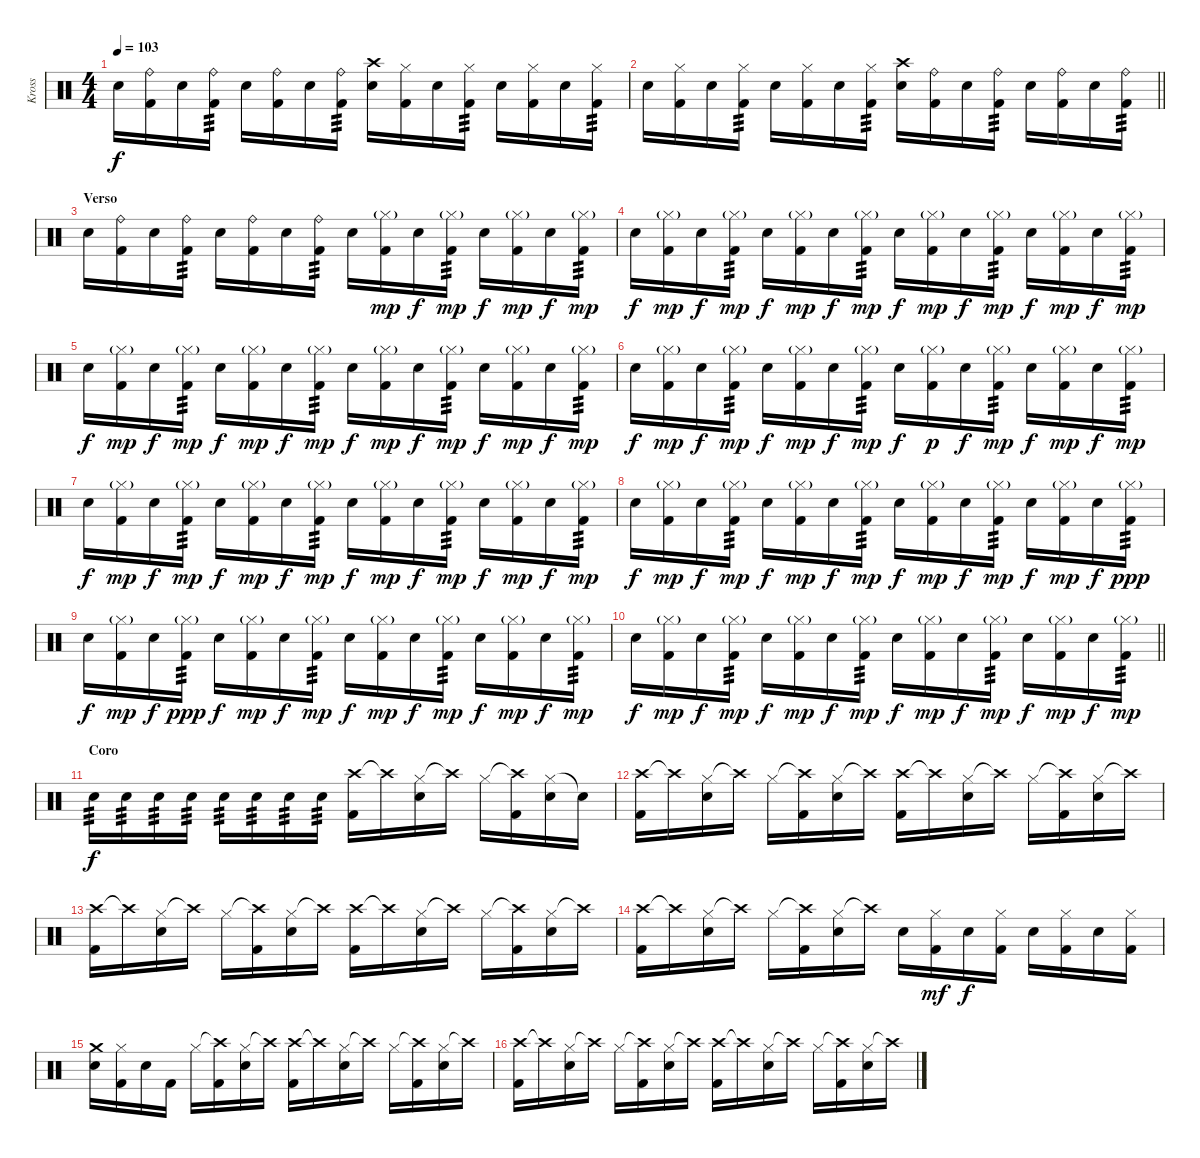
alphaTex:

\track ("Kross" "Kross") {instrument percussion}
\staff {score}
\articulation defaults
\ts (4 4)
\tempo 103
\clef neutral
\ks c "Electric Snare (hit)".16{dy f}
("Ride (bell)" "Kick (hit) 2").16 "Electric Snare (hit)".16 ("Ride (bell)" "Kick (hit) 2").16{tp 3} "Electric Snare (hit)".16 ("Ride (bell)" "Kick (hit) 2").16 "Electric Snare (hit)".16 ("Ride (bell)" "Kick (hit) 2").16{tp 3} ("Crash high (hit)" "Electric Snare (hit)").16 ("Hi-Hat (closed)" "Kick (hit) 2").16 "Electric Snare (hit)".16 ("Hi-Hat (closed)" "Kick (hit) 2").16{tp 3} "Electric Snare (hit)".16 ("Hi-Hat (closed)" "Kick (hit) 2").16 "Electric Snare (hit)".16 ("Hi-Hat (closed)" "Kick (hit) 2").16{tp 3} |
\barLineRight lightlight "Electric Snare (hit)".16
("Hi-Hat (closed)" "Kick (hit) 2").16 "Electric Snare (hit)".16 ("Hi-Hat (closed)" "Kick (hit) 2").16{tp 3} "Electric Snare (hit)".16 ("Hi-Hat (closed)" "Kick (hit) 2").16 "Electric Snare (hit)".16 ("Hi-Hat (closed)" "Kick (hit) 2").16{tp 3} ("Crash high (hit)" "Electric Snare (hit)").16 ("Ride (bell)" "Kick (hit) 2").16 "Electric Snare (hit)".16 ("Ride (bell)" "Kick (hit) 2").16{tp 3} "Electric Snare (hit)".16 ("Ride (bell)" "Kick (hit) 2").16 "Electric Snare (hit)".16 ("Ride (bell)" "Kick (hit) 2").16{tp 3} |
\section ("" "Verso")
"Electric Snare (hit)".16 ("Ride (bell)" "Kick (hit) 2").16 "Electric Snare (hit)".16 ("Ride (bell)" "Kick (hit) 2").16{tp 3} "Electric Snare (hit)".16 ("Ride (bell)" "Kick (hit) 2").16 "Electric Snare (hit)".16 ("Ride (bell)" "Kick (hit) 2").16{tp 3} "Electric Snare (hit)".16 ("Hi-Hat (closed)"{g} "Kick (hit) 2").16{dy mp} "Electric Snare (hit)".16{dy f} ("Hi-Hat (closed)"{g} "Kick (hit) 2").16{tp 3 dy mp} "Electric Snare (hit)".16{dy f} ("Hi-Hat (closed)"{g} "Kick (hit) 2").16{dy mp} "Electric Snare (hit)".16{dy f} ("Hi-Hat (closed)"{g} "Kick (hit) 2").16{tp 3 dy mp} |
"Electric Snare (hit)".16{dy f} ("Hi-Hat (closed)"{g} "Kick (hit) 2").16{dy mp} "Electric Snare (hit)".16{dy f} ("Hi-Hat (closed)"{g} "Kick (hit) 2").16{tp 3 dy mp} "Electric Snare (hit)".16{dy f} ("Hi-Hat (closed)"{g} "Kick (hit) 2").16{dy mp} "Electric Snare (hit)".16{dy f} ("Hi-Hat (closed)"{g} "Kick (hit) 2").16{tp 3 dy mp} "Electric Snare (hit)".16{dy f} ("Hi-Hat (closed)"{g} "Kick (hit) 2").16{dy mp} "Electric Snare (hit)".16{dy f} ("Hi-Hat (closed)"{g} "Kick (hit) 2").16{tp 3 dy mp} "Electric Snare (hit)".16{dy f} ("Hi-Hat (closed)"{g} "Kick (hit) 2").16{dy mp} "Electric Snare (hit)".16{dy f} ("Hi-Hat (closed)"{g} "Kick (hit) 2").16{tp 3 dy mp} |
"Electric Snare (hit)".16{dy f} ("Hi-Hat (closed)"{g} "Kick (hit) 2").16{dy mp} "Electric Snare (hit)".16{dy f} ("Hi-Hat (closed)"{g} "Kick (hit) 2").16{tp 3 dy mp} "Electric Snare (hit)".16{dy f} ("Hi-Hat (closed)"{g} "Kick (hit) 2").16{dy mp} "Electric Snare (hit)".16{dy f} ("Hi-Hat (closed)"{g} "Kick (hit) 2").16{tp 3 dy mp} "Electric Snare (hit)".16{dy f} ("Hi-Hat (closed)"{g} "Kick (hit) 2").16{dy mp} "Electric Snare (hit)".16{dy f} ("Hi-Hat (closed)"{g} "Kick (hit) 2").16{tp 3 dy mp} "Electric Snare (hit)".16{dy f} ("Hi-Hat (closed)"{g} "Kick (hit) 2").16{dy mp} "Electric Snare (hit)".16{dy f} ("Hi-Hat (closed)"{g} "Kick (hit) 2").16{tp 3 dy mp} |
"Electric Snare (hit)".16{dy f} ("Hi-Hat (closed)"{g} "Kick (hit) 2").16{dy mp} "Electric Snare (hit)".16{dy f} ("Hi-Hat (closed)"{g} "Kick (hit) 2").16{tp 3 dy mp} "Electric Snare (hit)".16{dy f} ("Hi-Hat (closed)"{g} "Kick (hit) 2").16{dy mp} "Electric Snare (hit)".16{dy f} ("Hi-Hat (closed)"{g} "Kick (hit) 2").16{tp 3 dy mp} "Electric Snare (hit)".16{dy f} ("Hi-Hat (closed)"{g} "Kick (hit) 2").16{dy p} "Electric Snare (hit)".16{dy f} ("Hi-Hat (closed)"{g} "Kick (hit) 2").16{tp 3 dy mp} "Electric Snare (hit)".16{dy f} ("Hi-Hat (closed)"{g} "Kick (hit) 2").16{dy mp} "Electric Snare (hit)".16{dy f} ("Hi-Hat (closed)"{g} "Kick (hit) 2").16{tp 3 dy mp} |
"Electric Snare (hit)".16{dy f} ("Hi-Hat (closed)"{g} "Kick (hit) 2").16{dy mp} "Electric Snare (hit)".16{dy f} ("Hi-Hat (closed)"{g} "Kick (hit) 2").16{tp 3 dy mp} "Electric Snare (hit)".16{dy f} ("Hi-Hat (closed)"{g} "Kick (hit) 2").16{dy mp} "Electric Snare (hit)".16{dy f} ("Hi-Hat (closed)"{g} "Kick (hit) 2").16{tp 3 dy mp} "Electric Snare (hit)".16{dy f} ("Hi-Hat (closed)"{g} "Kick (hit) 2").16{dy mp} "Electric Snare (hit)".16{dy f} ("Hi-Hat (closed)"{g} "Kick (hit) 2").16{tp 3 dy mp} "Electric Snare (hit)".16{dy f} ("Hi-Hat (closed)"{g} "Kick (hit) 2").16{dy mp} "Electric Snare (hit)".16{dy f} ("Hi-Hat (closed)"{g} "Kick (hit) 2").16{tp 3 dy mp} |
"Electric Snare (hit)".16{dy f} ("Hi-Hat (closed)"{g} "Kick (hit) 2").16{dy mp} "Electric Snare (hit)".16{dy f} ("Hi-Hat (closed)"{g} "Kick (hit) 2").16{tp 3 dy mp} "Electric Snare (hit)".16{dy f} ("Hi-Hat (closed)"{g} "Kick (hit) 2").16{dy mp} "Electric Snare (hit)".16{dy f} ("Hi-Hat (closed)"{g} "Kick (hit) 2").16{tp 3 dy mp} "Electric Snare (hit)".16{dy f} ("Hi-Hat (closed)"{g} "Kick (hit) 2").16{dy mp} "Electric Snare (hit)".16{dy f} ("Hi-Hat (closed)"{g} "Kick (hit) 2").16{tp 3 dy mp} "Electric Snare (hit)".16{dy f} ("Hi-Hat (closed)"{g} "Kick (hit) 2").16{dy mp} "Electric Snare (hit)".16{dy f} ("Hi-Hat (closed)"{g} "Kick (hit) 2").16{tp 3 dy ppp} |
"Electric Snare (hit)".16{dy f} ("Hi-Hat (closed)"{g} "Kick (hit) 2").16{dy mp} "Electric Snare (hit)".16{dy f} ("Hi-Hat (closed)"{g} "Kick (hit) 2").16{tp 3 dy ppp} "Electric Snare (hit)".16{dy f} ("Hi-Hat (closed)"{g} "Kick (hit) 2").16{dy mp} "Electric Snare (hit)".16{dy f} ("Hi-Hat (closed)"{g} "Kick (hit) 2").16{tp 3 dy mp} "Electric Snare (hit)".16{dy f} ("Hi-Hat (closed)"{g} "Kick (hit) 2").16{dy mp} "Electric Snare (hit)".16{dy f} ("Hi-Hat (closed)"{g} "Kick (hit) 2").16{tp 3 dy mp} "Electric Snare (hit)".16{dy f} ("Hi-Hat (closed)"{g} "Kick (hit) 2").16{dy mp} "Electric Snare (hit)".16{dy f} ("Hi-Hat (closed)"{g} "Kick (hit) 2").16{tp 3 dy mp} |
\barLineRight lightlight "Electric Snare (hit)".16{dy f}
("Hi-Hat (closed)"{g} "Kick (hit) 2").16{dy mp} "Electric Snare (hit)".16{dy f} ("Hi-Hat (closed)"{g} "Kick (hit) 2").16{tp 3 dy mp} "Electric Snare (hit)".16{dy f} ("Hi-Hat (closed)"{g} "Kick (hit) 2").16{dy mp} "Electric Snare (hit)".16{dy f} ("Hi-Hat (closed)"{g} "Kick (hit) 2").16{tp 3 dy mp} "Electric Snare (hit)".16{dy f} ("Hi-Hat (closed)"{g} "Kick (hit) 2").16{dy mp} "Electric Snare (hit)".16{dy f} ("Hi-Hat (closed)"{g} "Kick (hit) 2").16{tp 3 dy mp} "Electric Snare (hit)".16{dy f} ("Hi-Hat (closed)"{g} "Kick (hit) 2").16{dy mp} "Electric Snare (hit)".16{dy f} ("Hi-Hat (closed)"{g} "Kick (hit) 2").16{tp 3 dy mp} |
\section ("" "Coro")
"Electric Snare (hit)".16{tp 3 dy f} "Electric Snare (hit)".16{tp 3} "Electric Snare (hit)".16{tp 3} "Electric Snare (hit)".16{tp 3} "Electric Snare (hit)".16{tp 3} "Electric Snare (hit)".16{tp 3} "Electric Snare (hit)".16{tp 3} "Electric Snare (hit)".16{tp 3} ("Crash high (hit)" "Kick (hit) 2").16 "Crash high (hit)"{t}.16 ("Hi-Hat (closed)" "Electric Snare (hit)").16 "Crash high (hit)"{t}.16 "Hi-Hat (closed)".16 ("Crash high (hit)"{t} "Kick (hit) 2").16 ("Hi-Hat (closed)" "Electric Snare (hit)").16 "Snare (hit)"{t}.16 |
("Crash high (hit)" "Kick (hit) 2").16 "Crash high (hit)"{t}.16 ("Hi-Hat (closed)" "Electric Snare (hit)").16 "Crash high (hit)"{t}.16 "Hi-Hat (closed)".16 ("Crash high (hit)"{t} "Kick (hit) 2").16 ("Hi-Hat (closed)" "Electric Snare (hit)").16 "Crash high (hit)"{t}.16 ("Crash high (hit)" "Kick (hit) 2").16 "Crash high (hit)"{t}.16 ("Hi-Hat (closed)" "Electric Snare (hit)").16 "Crash high (hit)"{t}.16 "Hi-Hat (closed)".16 ("Crash high (hit)"{t} "Kick (hit) 2").16 ("Hi-Hat (closed)" "Electric Snare (hit)").16 "Crash high (hit)"{t}.16 |
("Crash high (hit)" "Kick (hit) 2").16 "Crash high (hit)"{t}.16 ("Hi-Hat (closed)" "Electric Snare (hit)").16 "Crash high (hit)"{t}.16 "Hi-Hat (closed)".16 ("Crash high (hit)"{t} "Kick (hit) 2").16 ("Hi-Hat (closed)" "Electric Snare (hit)").16 "Crash high (hit)"{t}.16 ("Crash high (hit)" "Kick (hit) 2").16 "Crash high (hit)"{t}.16 ("Hi-Hat (closed)" "Electric Snare (hit)").16 "Crash high (hit)"{t}.16 "Hi-Hat (closed)".16 ("Crash high (hit)"{t} "Kick (hit) 2").16 ("Hi-Hat (closed)" "Electric Snare (hit)").16 "Crash high (hit)"{t}.16 |
("Crash high (hit)" "Kick (hit) 2").16 "Crash high (hit)"{t}.16 ("Hi-Hat (closed)" "Electric Snare (hit)").16 "Crash high (hit)"{t}.16 "Hi-Hat (closed)".16 ("Crash high (hit)"{t} "Kick (hit) 2").16 ("Hi-Hat (closed)" "Electric Snare (hit)").16 "Crash high (hit)"{t}.16 "Electric Snare (hit)".16 ("Hi-Hat (closed)" "Kick (hit) 2").16{dy mf} "Electric Snare (hit)".16{dy f} ("Hi-Hat (closed)" "Kick (hit) 2").16 "Electric Snare (hit)".16 ("Hi-Hat (closed)" "Kick (hit) 2").16 "Electric Snare (hit)".16 ("Hi-Hat (closed)" "Kick (hit) 2").16 |
("Crash medium (hit)" "Electric Snare (hit)").16 ("Hi-Hat (closed)" "Kick (hit) 2").16 "Electric Snare (hit)".16 "Kick (hit) 2".16 "Hi-Hat (closed)".16 ("Crash high (hit)"{t} "Kick (hit) 2").16 ("Hi-Hat (closed)" "Electric Snare (hit)").16 "Crash high (hit)"{t}.16 ("Crash high (hit)" "Kick (hit) 2").16 "Crash high (hit)"{t}.16 ("Hi-Hat (closed)" "Electric Snare (hit)").16 "Crash high (hit)"{t}.16 "Hi-Hat (closed)".16 ("Crash high (hit)"{t} "Kick (hit) 2").16 ("Hi-Hat (closed)" "Electric Snare (hit)").16 "Crash high (hit)"{t}.16 |
("Crash high (hit)" "Kick (hit) 2").16 "Crash high (hit)"{t}.16 ("Hi-Hat (closed)" "Electric Snare (hit)").16 "Crash high (hit)"{t}.16 "Hi-Hat (closed)".16 ("Crash high (hit)"{t} "Kick (hit) 2").16 ("Hi-Hat (closed)" "Electric Snare (hit)").16 "Crash high (hit)"{t}.16 ("Crash high (hit)" "Kick (hit) 2").16 "Crash high (hit)"{t}.16 ("Hi-Hat (closed)" "Electric Snare (hit)").16 "Crash high (hit)"{t}.16 "Hi-Hat (closed)".16 ("Crash high (hit)"{t} "Kick (hit) 2").16 ("Hi-Hat (closed)" "Electric Snare (hit)").16 "Crash high (hit)"{t}.16
